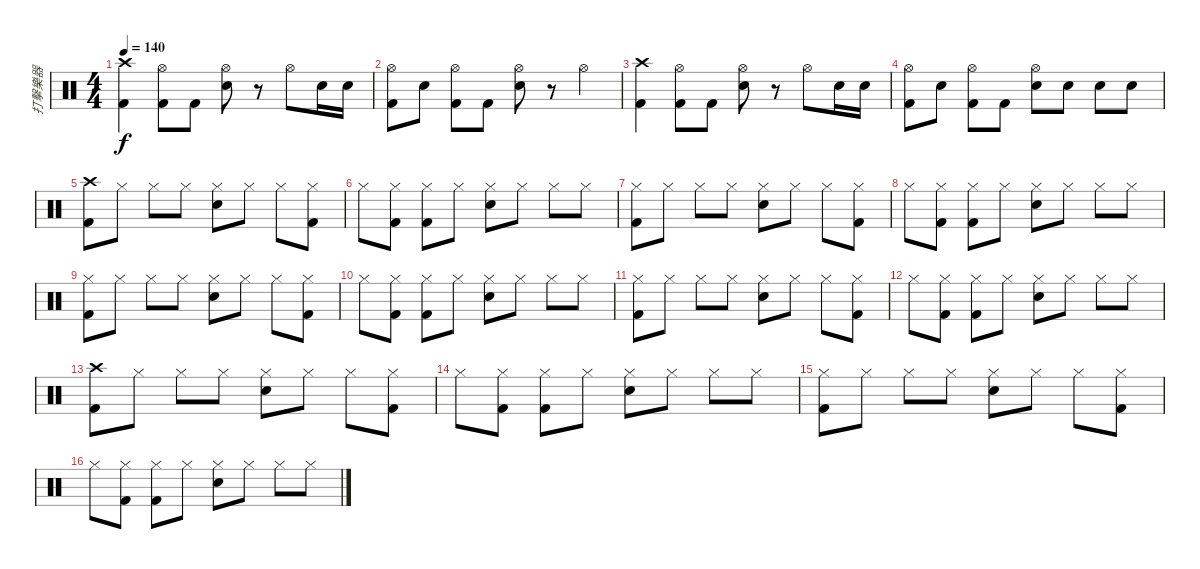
\track ("打擊樂器" "打擊樂器") {instrument percussion}
\staff {score}
\articulation defaults
\ts (4 4)
\tempo 140
\clef neutral
\ks c
("Crash high (hit)" "Kick (hit) 2").4{dy f} ("Hi-Hat (open)" "Kick (hit) 2").8 "Kick (hit) 2".8 ("Hi-Hat (open)" "Electric Snare (hit)").8 r.8 "Hi-Hat (open)".8 "Electric Snare (hit)".16 "Electric Snare (hit)".16 |
("Hi-Hat (open)" "Kick (hit) 2").8 "Electric Snare (hit)".8 ("Hi-Hat (open)" "Kick (hit) 2").8 "Kick (hit) 2".8 ("Hi-Hat (open)" "Electric Snare (hit)").8 r.8 "Hi-Hat (open)".4 |
("Crash high (hit)" "Kick (hit) 2").4 ("Hi-Hat (open)" "Kick (hit) 2").8 "Kick (hit) 2".8 ("Hi-Hat (open)" "Electric Snare (hit)").8 r.8 "Hi-Hat (open)".8 "Electric Snare (hit)".16 "Electric Snare (hit)".16 |
("Hi-Hat (open)" "Kick (hit) 2").8 "Electric Snare (hit)".8 ("Hi-Hat (open)" "Kick (hit) 2").8 "Kick (hit) 2".8 ("Hi-Hat (open)" "Electric Snare (hit)").8 "Electric Snare (hit)".8 "Electric Snare (hit)".8 "Electric Snare (hit)".8 |
("Crash high (hit)" "Kick (hit) 2").8 "Hi-Hat (closed)".8 "Hi-Hat (closed)".8 "Hi-Hat (closed)".8 ("Hi-Hat (closed)" "Electric Snare (hit)").8 "Hi-Hat (closed)".8 "Hi-Hat (closed)".8 ("Hi-Hat (closed)" "Kick (hit) 2").8 |
"Hi-Hat (closed)".8 ("Hi-Hat (closed)" "Kick (hit) 2").8 ("Hi-Hat (closed)" "Kick (hit) 2").8 "Hi-Hat (closed)".8 ("Hi-Hat (closed)" "Electric Snare (hit)").8 "Hi-Hat (closed)".8 "Hi-Hat (closed)".8 "Hi-Hat (closed)".8 |
("Hi-Hat (closed)" "Kick (hit) 2").8 "Hi-Hat (closed)".8 "Hi-Hat (closed)".8 "Hi-Hat (closed)".8 ("Hi-Hat (closed)" "Electric Snare (hit)").8 "Hi-Hat (closed)".8 "Hi-Hat (closed)".8 ("Hi-Hat (closed)" "Kick (hit) 2").8 |
"Hi-Hat (closed)".8 ("Hi-Hat (closed)" "Kick (hit) 2").8 ("Hi-Hat (closed)" "Kick (hit) 2").8 "Hi-Hat (closed)".8 ("Hi-Hat (closed)" "Electric Snare (hit)").8 "Hi-Hat (closed)".8 "Hi-Hat (closed)".8 "Hi-Hat (closed)".8 |
("Hi-Hat (closed)" "Kick (hit) 2").8 "Hi-Hat (closed)".8 "Hi-Hat (closed)".8 "Hi-Hat (closed)".8 ("Hi-Hat (closed)" "Electric Snare (hit)").8 "Hi-Hat (closed)".8 "Hi-Hat (closed)".8 ("Hi-Hat (closed)" "Kick (hit) 2").8 |
"Hi-Hat (closed)".8 ("Hi-Hat (closed)" "Kick (hit) 2").8 ("Hi-Hat (closed)" "Kick (hit) 2").8 "Hi-Hat (closed)".8 ("Hi-Hat (closed)" "Electric Snare (hit)").8 "Hi-Hat (closed)".8 "Hi-Hat (closed)".8 "Hi-Hat (closed)".8 |
("Hi-Hat (closed)" "Kick (hit) 2").8 "Hi-Hat (closed)".8 "Hi-Hat (closed)".8 "Hi-Hat (closed)".8 ("Hi-Hat (closed)" "Electric Snare (hit)").8 "Hi-Hat (closed)".8 "Hi-Hat (closed)".8 ("Hi-Hat (closed)" "Kick (hit) 2").8 |
"Hi-Hat (closed)".8 ("Hi-Hat (closed)" "Kick (hit) 2").8 ("Hi-Hat (closed)" "Kick (hit) 2").8 "Hi-Hat (closed)".8 ("Hi-Hat (closed)" "Electric Snare (hit)").8 "Hi-Hat (closed)".8 "Hi-Hat (closed)".8 "Hi-Hat (closed)".8 |
("Crash high (hit)" "Kick (hit) 2").8 "Hi-Hat (closed)".8 "Hi-Hat (closed)".8 "Hi-Hat (closed)".8 ("Hi-Hat (closed)" "Electric Snare (hit)").8 "Hi-Hat (closed)".8 "Hi-Hat (closed)".8 ("Hi-Hat (closed)" "Kick (hit) 2").8 |
"Hi-Hat (closed)".8 ("Hi-Hat (closed)" "Kick (hit) 2").8 ("Hi-Hat (closed)" "Kick (hit) 2").8 "Hi-Hat (closed)".8 ("Hi-Hat (closed)" "Electric Snare (hit)").8 "Hi-Hat (closed)".8 "Hi-Hat (closed)".8 "Hi-Hat (closed)".8 |
("Hi-Hat (closed)" "Kick (hit) 2").8 "Hi-Hat (closed)".8 "Hi-Hat (closed)".8 "Hi-Hat (closed)".8 ("Hi-Hat (closed)" "Electric Snare (hit)").8 "Hi-Hat (closed)".8 "Hi-Hat (closed)".8 ("Hi-Hat (closed)" "Kick (hit) 2").8 |
"Hi-Hat (closed)".8 ("Hi-Hat (closed)" "Kick (hit) 2").8 ("Hi-Hat (closed)" "Kick (hit) 2").8 "Hi-Hat (closed)".8 ("Hi-Hat (closed)" "Electric Snare (hit)").8 "Hi-Hat (closed)".8 "Hi-Hat (closed)".8 "Hi-Hat (closed)".8
